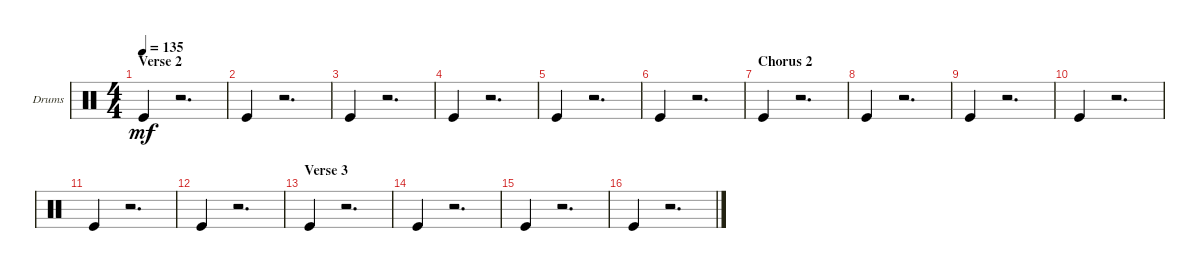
\bracketExtendMode groupsimilarinstruments
\firstSystemTrackNameOrientation horizontal
\otherSystemsTrackNameOrientation horizontal
\chordDiagramsInScore
\track ("Drumkit" "Drums") {instrument percussion}
\staff {score}
\articulation defaults
\ts (4 4)
\section ("" "Verse 2")
\tempo 135
\clef neutral
\ks c "Kick (hit)".4{dy mf}
r.2{d} |
"Kick (hit)".4 r.2{d} |
"Kick (hit)".4 r.2{d} |
"Kick (hit)".4 r.2{d} |
"Kick (hit)".4 r.2{d} |
"Kick (hit)".4 r.2{d} |
\section ("" "Chorus 2")
"Kick (hit)".4 r.2{d} |
"Kick (hit)".4 r.2{d} |
"Kick (hit)".4 r.2{d} |
"Kick (hit)".4 r.2{d} |
"Kick (hit)".4 r.2{d} |
"Kick (hit)".4 r.2{d} |
\section ("" "Verse 3")
"Kick (hit)".4 r.2{d} |
"Kick (hit)".4 r.2{d} |
"Kick (hit)".4 r.2{d} |
"Kick (hit)".4 r.2{d}
